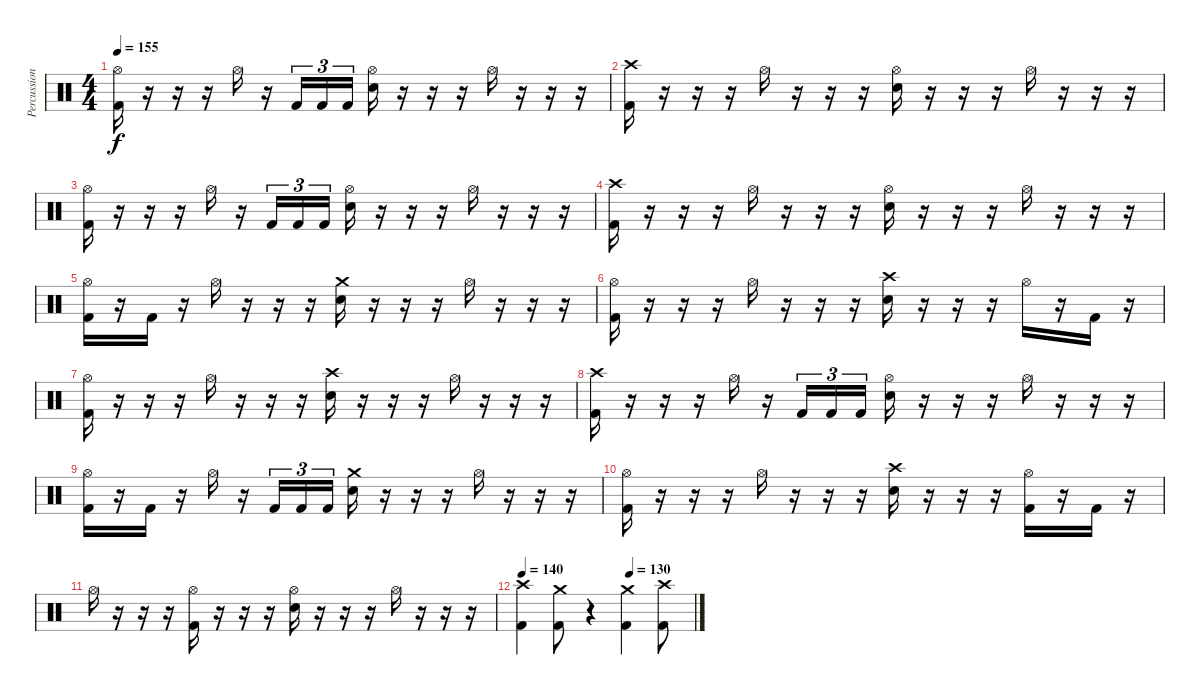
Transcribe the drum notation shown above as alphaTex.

\track ("Percussion" "Percussion") {instrument percussion}
\staff {score}
\articulation defaults
\ts (4 4)
\tempo 155
\clef neutral
\ks c
("Hi-Hat (open)" "Kick (hit) 2").16{dy f} r.16 r.16 r.16 "Hi-Hat (open)".16 r.16 "Kick (hit) 2".16{tu (3 2)} "Kick (hit) 2".16{tu (3 2)} "Kick (hit) 2".16{tu (3 2)} ("Hi-Hat (open)" "Snare (hit) 2").16 r.16 r.16 r.16 "Hi-Hat (open)".16 r.16 r.16 r.16 |
("Crash high (hit)" "Kick (hit) 2").16 r.16 r.16 r.16 "Hi-Hat (open)".16 r.16 r.16 r.16 ("Hi-Hat (open)" "Snare (hit) 2").16 r.16 r.16 r.16 "Hi-Hat (open)".16 r.16 r.16 r.16 |
("Hi-Hat (open)" "Kick (hit) 2").16 r.16 r.16 r.16 "Hi-Hat (open)".16 r.16 "Kick (hit) 2".16{tu (3 2)} "Kick (hit) 2".16{tu (3 2)} "Kick (hit) 2".16{tu (3 2)} ("Hi-Hat (open)" "Snare (hit) 2").16 r.16 r.16 r.16 "Hi-Hat (open)".16 r.16 r.16 r.16 |
("Crash high (hit)" "Kick (hit) 2").16 r.16 r.16 r.16 "Hi-Hat (open)".16 r.16 r.16 r.16 ("Hi-Hat (open)" "Snare (hit) 2").16 r.16 r.16 r.16 "Hi-Hat (open)".16 r.16 r.16 r.16 |
("Hi-Hat (open)" "Kick (hit) 2").16 r.16 "Kick (hit) 2".16 r.16 "Hi-Hat (open)".16 r.16 r.16 r.16 ("Crash medium (hit)" "Snare (hit) 2").16 r.16 r.16 r.16 "Hi-Hat (open)".16 r.16 r.16 r.16 |
("Hi-Hat (open)" "Kick (hit) 2").16 r.16 r.16 r.16 "Hi-Hat (open)".16 r.16 r.16 r.16 ("Crash high (hit)" "Snare (hit) 2").16 r.16 r.16 r.16 "Hi-Hat (open)".16 r.16 "Kick (hit) 2".16 r.16 |
("Hi-Hat (open)" "Kick (hit) 2").16 r.16 r.16 r.16 "Hi-Hat (open)".16 r.16 r.16 r.16 ("Crash high (hit)" "Snare (hit) 2").16 r.16 r.16 r.16 "Hi-Hat (open)".16 r.16 r.16 r.16 |
("Crash high (hit)" "Kick (hit) 2").16 r.16 r.16 r.16 "Hi-Hat (open)".16 r.16 "Kick (hit) 2".16{tu (3 2)} "Kick (hit) 2".16{tu (3 2)} "Kick (hit) 2".16{tu (3 2)} ("Hi-Hat (open)" "Snare (hit) 2").16 r.16 r.16 r.16 "Hi-Hat (open)".16 r.16 r.16 r.16 |
("Hi-Hat (open)" "Kick (hit) 2").16 r.16 "Kick (hit) 2".16 r.16 "Hi-Hat (open)".16 r.16 "Kick (hit) 2".16{tu (3 2)} "Kick (hit) 2".16{tu (3 2)} "Kick (hit) 2".16{tu (3 2)} ("Crash medium (hit)" "Snare (hit) 2").16 r.16 r.16 r.16 "Hi-Hat (open)".16 r.16 r.16 r.16 |
("Hi-Hat (open)" "Kick (hit) 2").16 r.16 r.16 r.16 "Hi-Hat (open)".16 r.16 r.16 r.16 ("Crash high (hit)" "Snare (hit) 2").16 r.16 r.16 r.16 ("Hi-Hat (open)" "Kick (hit) 2").16 r.16 "Kick (hit) 2".16 r.16 |
"Hi-Hat (open)".16 r.16 r.16 r.16 ("Hi-Hat (open)" "Kick (hit) 2").16 r.16 r.16 r.16 ("Hi-Hat (open)" "Snare (hit) 2").16 r.16 r.16 r.16 "Hi-Hat (open)".16 r.16 r.16 r.16 |
\tempo 140
\tempo (130 0.625)
("Crash high (hit)" "Kick (hit) 2").4 ("Crash medium (hit)" "Kick (hit) 2").8 r.4 ("Crash medium (hit)" "Kick (hit) 2").4 ("Crash high (hit)" "Kick (hit) 2").8
